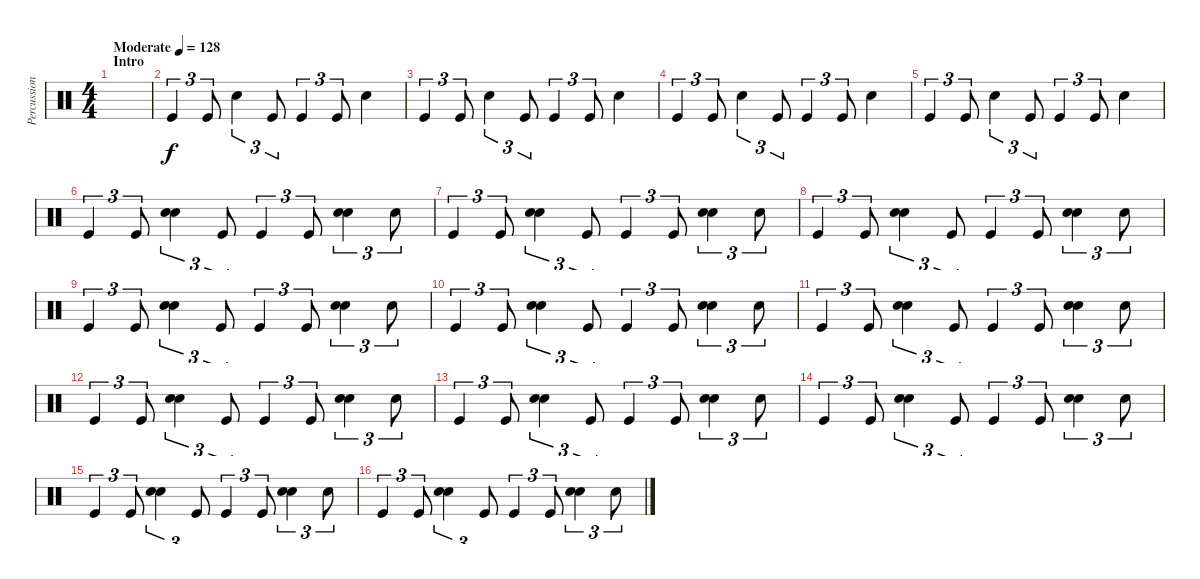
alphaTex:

\track ("Percussion" "Percussion") {instrument percussion}
\staff {score}
\articulation defaults
\ts (4 4)
\section ("" "Intro")
\tempo (128 "Moderate")
\clef neutral
\ks c
|
"Kick (hit)".4{tu (3 2)} "Kick (hit)".8{tu (3 2)} "Electric Snare (hit)".4{tu (3 2)} "Kick (hit)".8{tu (3 2)} "Kick (hit)".4{tu (3 2)} "Kick (hit)".8{tu (3 2)} "Electric Snare (hit)".4 |
"Kick (hit)".4{tu (3 2)} "Kick (hit)".8{tu (3 2)} "Electric Snare (hit)".4{tu (3 2)} "Kick (hit)".8{tu (3 2)} "Kick (hit)".4{tu (3 2)} "Kick (hit)".8{tu (3 2)} "Electric Snare (hit)".4 |
"Kick (hit)".4{tu (3 2)} "Kick (hit)".8{tu (3 2)} "Electric Snare (hit)".4{tu (3 2)} "Kick (hit)".8{tu (3 2)} "Kick (hit)".4{tu (3 2)} "Kick (hit)".8{tu (3 2)} "Electric Snare (hit)".4 |
"Kick (hit)".4{tu (3 2)} "Kick (hit)".8{tu (3 2)} "Electric Snare (hit)".4{tu (3 2)} "Kick (hit)".8{tu (3 2)} "Kick (hit)".4{tu (3 2)} "Kick (hit)".8{tu (3 2)} "Electric Snare (hit)".4 |
"Kick (hit)".4{tu (3 2)} "Kick (hit)".8{tu (3 2)} ("Hand Clap (hit)" "Electric Snare (hit)").4{tu (3 2)} "Kick (hit)".8{tu (3 2)} "Kick (hit)".4{tu (3 2)} "Kick (hit)".8{tu (3 2)} ("Hand Clap (hit)" "Electric Snare (hit)").4{tu (3 2)} "Hand Clap (hit)".8{tu (3 2)} |
"Kick (hit)".4{tu (3 2)} "Kick (hit)".8{tu (3 2)} ("Hand Clap (hit)" "Electric Snare (hit)").4{tu (3 2)} "Kick (hit)".8{tu (3 2)} "Kick (hit)".4{tu (3 2)} "Kick (hit)".8{tu (3 2)} ("Hand Clap (hit)" "Electric Snare (hit)").4{tu (3 2)} "Hand Clap (hit)".8{tu (3 2)} |
"Kick (hit)".4{tu (3 2)} "Kick (hit)".8{tu (3 2)} ("Hand Clap (hit)" "Electric Snare (hit)").4{tu (3 2)} "Kick (hit)".8{tu (3 2)} "Kick (hit)".4{tu (3 2)} "Kick (hit)".8{tu (3 2)} ("Hand Clap (hit)" "Electric Snare (hit)").4{tu (3 2)} "Hand Clap (hit)".8{tu (3 2)} |
"Kick (hit)".4{tu (3 2)} "Kick (hit)".8{tu (3 2)} ("Hand Clap (hit)" "Electric Snare (hit)").4{tu (3 2)} "Kick (hit)".8{tu (3 2)} "Kick (hit)".4{tu (3 2)} "Kick (hit)".8{tu (3 2)} ("Hand Clap (hit)" "Electric Snare (hit)").4{tu (3 2)} "Hand Clap (hit)".8{tu (3 2)} |
"Kick (hit)".4{tu (3 2)} "Kick (hit)".8{tu (3 2)} ("Hand Clap (hit)" "Electric Snare (hit)").4{tu (3 2)} "Kick (hit)".8{tu (3 2)} "Kick (hit)".4{tu (3 2)} "Kick (hit)".8{tu (3 2)} ("Hand Clap (hit)" "Electric Snare (hit)").4{tu (3 2)} "Hand Clap (hit)".8{tu (3 2)} |
"Kick (hit)".4{tu (3 2)} "Kick (hit)".8{tu (3 2)} ("Hand Clap (hit)" "Electric Snare (hit)").4{tu (3 2)} "Kick (hit)".8{tu (3 2)} "Kick (hit)".4{tu (3 2)} "Kick (hit)".8{tu (3 2)} ("Hand Clap (hit)" "Electric Snare (hit)").4{tu (3 2)} "Hand Clap (hit)".8{tu (3 2)} |
"Kick (hit)".4{tu (3 2)} "Kick (hit)".8{tu (3 2)} ("Hand Clap (hit)" "Electric Snare (hit)").4{tu (3 2)} "Kick (hit)".8{tu (3 2)} "Kick (hit)".4{tu (3 2)} "Kick (hit)".8{tu (3 2)} ("Hand Clap (hit)" "Electric Snare (hit)").4{tu (3 2)} "Hand Clap (hit)".8{tu (3 2)} |
"Kick (hit)".4{tu (3 2)} "Kick (hit)".8{tu (3 2)} ("Hand Clap (hit)" "Electric Snare (hit)").4{tu (3 2)} "Kick (hit)".8{tu (3 2)} "Kick (hit)".4{tu (3 2)} "Kick (hit)".8{tu (3 2)} ("Hand Clap (hit)" "Electric Snare (hit)").4{tu (3 2)} "Hand Clap (hit)".8{tu (3 2)} |
"Kick (hit)".4{tu (3 2)} "Kick (hit)".8{tu (3 2)} ("Hand Clap (hit)" "Electric Snare (hit)").4{tu (3 2)} "Kick (hit)".8{tu (3 2)} "Kick (hit)".4{tu (3 2)} "Kick (hit)".8{tu (3 2)} ("Hand Clap (hit)" "Electric Snare (hit)").4{tu (3 2)} "Hand Clap (hit)".8{tu (3 2)} |
"Kick (hit)".4{tu (3 2)} "Kick (hit)".8{tu (3 2)} ("Hand Clap (hit)" "Electric Snare (hit)").4{tu (3 2)} "Kick (hit)".8{tu (3 2)} "Kick (hit)".4{tu (3 2)} "Kick (hit)".8{tu (3 2)} ("Hand Clap (hit)" "Electric Snare (hit)").4{tu (3 2)} "Hand Clap (hit)".8{tu (3 2)} |
"Kick (hit)".4{tu (3 2)} "Kick (hit)".8{tu (3 2)} ("Hand Clap (hit)" "Electric Snare (hit)").4{tu (3 2)} "Kick (hit)".8{tu (3 2)} "Kick (hit)".4{tu (3 2)} "Kick (hit)".8{tu (3 2)} ("Hand Clap (hit)" "Electric Snare (hit)").4{tu (3 2)} "Hand Clap (hit)".8{tu (3 2)}
